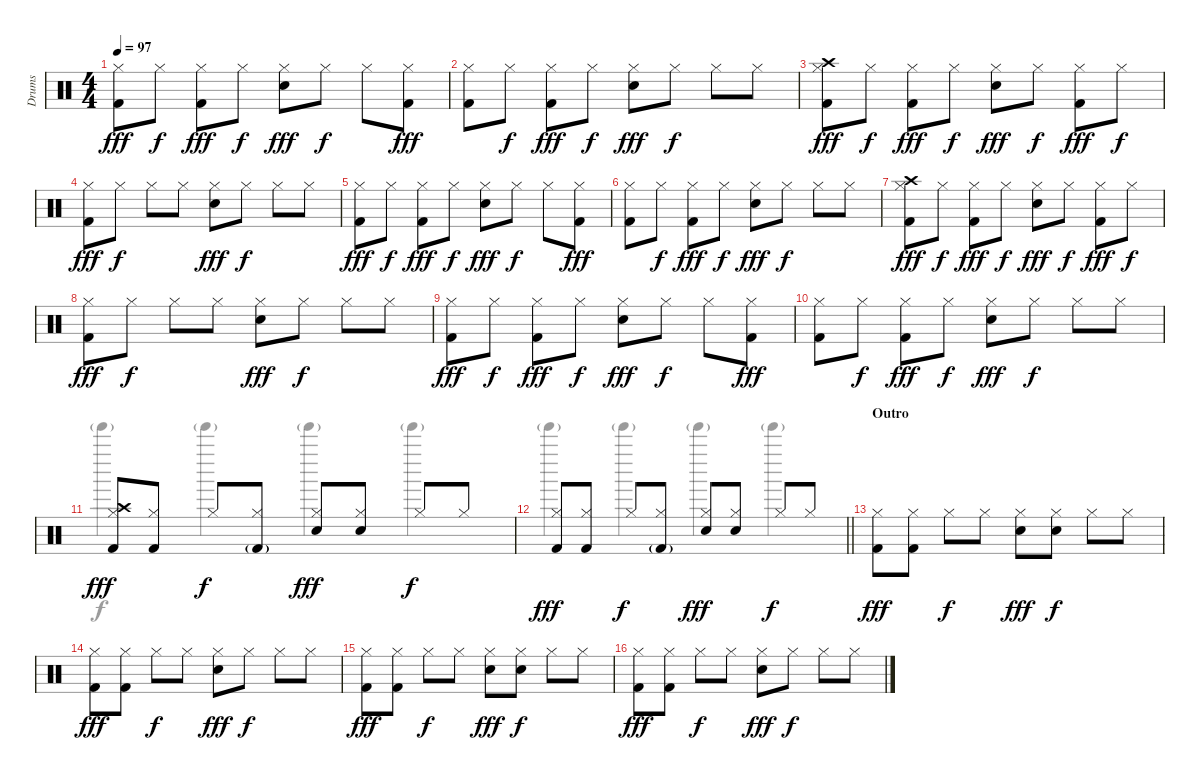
\track ("Drums" "Drums") {instrument percussion}
\staff {score}
\articulation defaults
\voice
\ts (4 4)
\tempo 97
\clef neutral
\ks c
("Hi-Hat (closed)" "Kick (hit) 2").8{dy fff} "Hi-Hat (closed)".8{dy f} ("Hi-Hat (closed)" "Kick (hit) 2").8{dy fff} "Hi-Hat (closed)".8{dy f} ("Hi-Hat (closed)" "Electric Snare (hit)").8{dy fff} "Hi-Hat (closed)".8{dy f} "Hi-Hat (closed)".8 ("Hi-Hat (closed)" "Kick (hit) 2").8{dy fff} |
("Hi-Hat (closed)" "Kick (hit) 2").8 "Hi-Hat (closed)".8{dy f} ("Hi-Hat (closed)" "Kick (hit) 2").8{dy fff} "Hi-Hat (closed)".8{dy f} ("Hi-Hat (closed)" "Electric Snare (hit)").8{dy fff} "Hi-Hat (closed)".8{dy f} "Hi-Hat (closed)".8 "Hi-Hat (closed)".8 |
("Crash high (hit)" "Hi-Hat (closed)" "Kick (hit) 2").8{dy fff} "Hi-Hat (closed)".8{dy f} ("Hi-Hat (closed)" "Kick (hit) 2").8{dy fff} "Hi-Hat (closed)".8{dy f} ("Hi-Hat (closed)" "Electric Snare (hit)").8{dy fff} "Hi-Hat (closed)".8{dy f} ("Hi-Hat (closed)" "Kick (hit) 2").8{dy fff} "Hi-Hat (closed)".8{dy f} |
("Hi-Hat (closed)" "Kick (hit) 2").8{dy fff} "Hi-Hat (closed)".8{dy f} "Hi-Hat (closed)".8 "Hi-Hat (closed)".8 ("Hi-Hat (closed)" "Electric Snare (hit)").8{dy fff} "Hi-Hat (closed)".8{dy f} "Hi-Hat (closed)".8 "Hi-Hat (closed)".8 |
("Hi-Hat (closed)" "Kick (hit) 2").8{dy fff} "Hi-Hat (closed)".8{dy f} ("Hi-Hat (closed)" "Kick (hit) 2").8{dy fff} "Hi-Hat (closed)".8{dy f} ("Hi-Hat (closed)" "Electric Snare (hit)").8{dy fff} "Hi-Hat (closed)".8{dy f} "Hi-Hat (closed)".8 ("Hi-Hat (closed)" "Kick (hit) 2").8{dy fff} |
("Hi-Hat (closed)" "Kick (hit) 2").8 "Hi-Hat (closed)".8{dy f} ("Hi-Hat (closed)" "Kick (hit) 2").8{dy fff} "Hi-Hat (closed)".8{dy f} ("Hi-Hat (closed)" "Electric Snare (hit)").8{dy fff} "Hi-Hat (closed)".8{dy f} "Hi-Hat (closed)".8 "Hi-Hat (closed)".8 |
("Crash high (hit)" "Hi-Hat (closed)" "Kick (hit) 2").8{dy fff} "Hi-Hat (closed)".8{dy f} ("Hi-Hat (closed)" "Kick (hit) 2").8{dy fff} "Hi-Hat (closed)".8{dy f} ("Hi-Hat (closed)" "Electric Snare (hit)").8{dy fff} "Hi-Hat (closed)".8{dy f} ("Hi-Hat (closed)" "Kick (hit) 2").8{dy fff} "Hi-Hat (closed)".8{dy f} |
("Hi-Hat (closed)" "Kick (hit) 2").8{dy fff} "Hi-Hat (closed)".8{dy f} "Hi-Hat (closed)".8 "Hi-Hat (closed)".8 ("Hi-Hat (closed)" "Electric Snare (hit)").8{dy fff} "Hi-Hat (closed)".8{dy f} "Hi-Hat (closed)".8 "Hi-Hat (closed)".8 |
("Hi-Hat (closed)" "Kick (hit) 2").8{dy fff} "Hi-Hat (closed)".8{dy f} ("Hi-Hat (closed)" "Kick (hit) 2").8{dy fff} "Hi-Hat (closed)".8{dy f} ("Hi-Hat (closed)" "Electric Snare (hit)").8{dy fff} "Hi-Hat (closed)".8{dy f} "Hi-Hat (closed)".8 ("Hi-Hat (closed)" "Kick (hit) 2").8{dy fff} |
("Hi-Hat (closed)" "Kick (hit) 2").8 "Hi-Hat (closed)".8{dy f} ("Hi-Hat (closed)" "Kick (hit) 2").8{dy fff} "Hi-Hat (closed)".8{dy f} ("Hi-Hat (closed)" "Electric Snare (hit)").8{dy fff} "Hi-Hat (closed)".8{dy f} "Hi-Hat (closed)".8 "Hi-Hat (closed)".8 |
("Crash high (hit)" "Hi-Hat (closed)" "Kick (hit) 2").8{dy fff} ("Hi-Hat (closed)" "Kick (hit) 2").8 "Hi-Hat (closed)".8{dy f} ("Hi-Hat (closed)" "Kick (hit) 2"{g}).8 ("Hi-Hat (closed)" "Electric Snare (hit)").8{dy fff} ("Hi-Hat (closed)" "Electric Snare (hit)").8 "Hi-Hat (closed)".8{dy f} "Hi-Hat (closed)".8 |
\barLineRight lightlight
("Hi-Hat (closed)" "Kick (hit) 2").8{dy fff} ("Hi-Hat (closed)" "Kick (hit) 2").8 "Hi-Hat (closed)".8{dy f} ("Hi-Hat (closed)" "Kick (hit) 2"{g}).8 ("Hi-Hat (closed)" "Electric Snare (hit)").8{dy fff} ("Hi-Hat (closed)" "Electric Snare (hit)").8 "Hi-Hat (closed)".8{dy f} "Hi-Hat (closed)".8 |
\section ("" "Outro")
("Hi-Hat (closed)" "Kick (hit) 2").8{dy fff} ("Hi-Hat (closed)" "Kick (hit) 2").8 "Hi-Hat (closed)".8{dy f} "Hi-Hat (closed)".8 ("Hi-Hat (closed)" "Electric Snare (hit)").8{dy fff} ("Hi-Hat (closed)" "Electric Snare (hit)").8{dy f} "Hi-Hat (closed)".8 "Hi-Hat (closed)".8 |
("Hi-Hat (closed)" "Kick (hit) 2").8{dy fff} ("Hi-Hat (closed)" "Kick (hit) 2").8 "Hi-Hat (closed)".8{dy f} "Hi-Hat (closed)".8 ("Hi-Hat (closed)" "Electric Snare (hit)").8{dy fff} "Hi-Hat (closed)".8{dy f} "Hi-Hat (closed)".8 "Hi-Hat (closed)".8 |
("Hi-Hat (closed)" "Kick (hit) 2").8{dy fff} ("Hi-Hat (closed)" "Kick (hit) 2").8 "Hi-Hat (closed)".8{dy f} "Hi-Hat (closed)".8 ("Hi-Hat (closed)" "Electric Snare (hit)").8{dy fff} ("Hi-Hat (closed)" "Electric Snare (hit)").8{dy f} "Hi-Hat (closed)".8 "Hi-Hat (closed)".8 |
("Hi-Hat (closed)" "Kick (hit) 2").8{dy fff} ("Hi-Hat (closed)" "Kick (hit) 2").8 "Hi-Hat (closed)".8{dy f} "Hi-Hat (closed)".8 ("Hi-Hat (closed)" "Electric Snare (hit)").8{dy fff} "Hi-Hat (closed)".8{dy f} "Hi-Hat (closed)".8 "Hi-Hat (closed)".8
\voice
\clef neutral
\ottava regular
\simile none
\ks c
|
|
|
|
|
|
|
|
|
|
"Tinkle Bell (hit)"{g}.4 "Tinkle Bell (hit)"{g}.4 "Tinkle Bell (hit)"{g}.4 "Tinkle Bell (hit)"{g}.4 |
\barLineRight lightlight "Tinkle Bell (hit)"{g}.4 "Tinkle Bell (hit)"{g}.4 "Tinkle Bell (hit)"{g}.4 "Tinkle Bell (hit)"{g}.4
|
|
|
|
